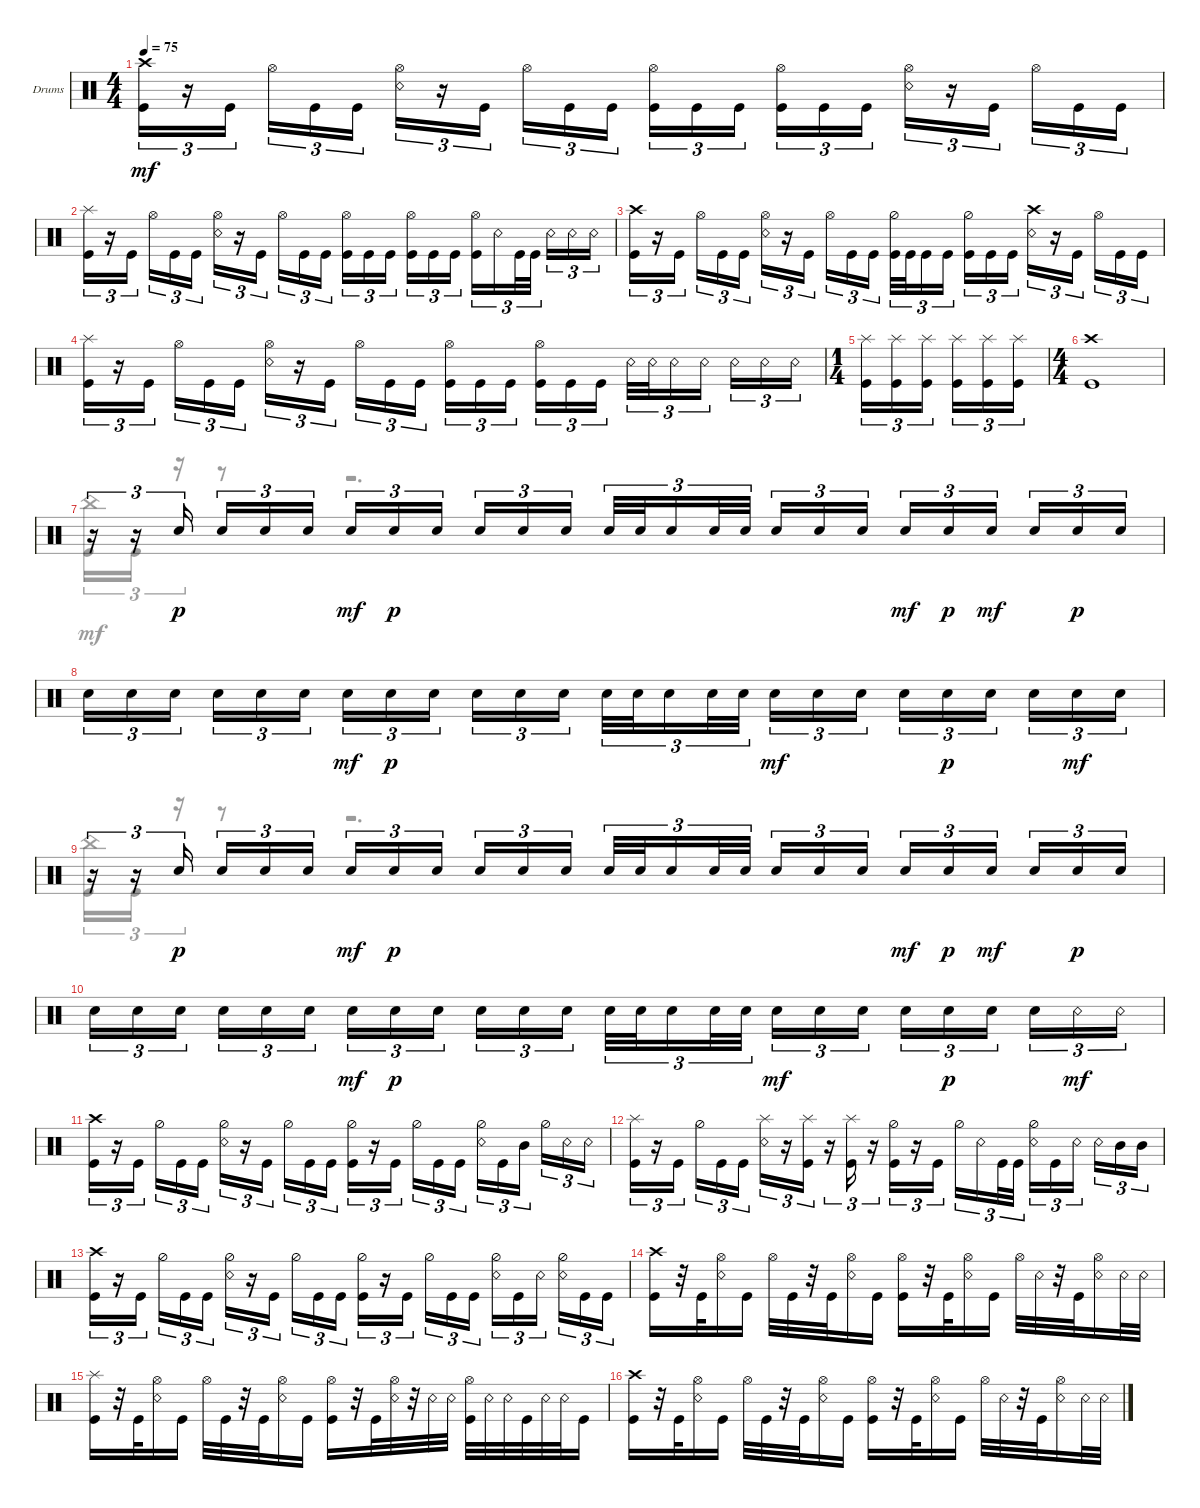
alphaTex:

\defaultSystemsLayout 4
\bracketExtendMode groupsimilarinstruments
\firstSystemTrackNameOrientation horizontal
\otherSystemsTrackNameOrientation horizontal
\track ("Drumkit" "Drums") {instrument percussion}
\staff {score}
\articulation defaults
\voice
\ts (4 4)
\tempo 75
\clef neutral
\ks c
("Kick (hit)" "Crash high (hit)").16{tu (3 2) dy mf} r.16{tu (3 2)} "Kick (hit)".16{tu (3 2)} "Hi-Hat (open)".16{tu (3 2)} "Kick (hit)".16{tu (3 2)} "Kick (hit)".16{tu (3 2)} ("Snare (rim shot)" "Hi-Hat (open)").16{tu (3 2)} r.16{tu (3 2)} "Kick (hit)".16{tu (3 2)} "Hi-Hat (open)".16{tu (3 2)} "Kick (hit)".16{tu (3 2)} "Kick (hit)".16{tu (3 2)} ("Kick (hit)" "Hi-Hat (open)").16{tu (3 2)} "Kick (hit)".16{tu (3 2)} "Kick (hit)".16{tu (3 2)} ("Hi-Hat (open)" "Kick (hit)").16{tu (3 2)} "Kick (hit)".16{tu (3 2)} "Kick (hit)".16{tu (3 2)} ("Snare (rim shot)" "Hi-Hat (open)").16{tu (3 2)} r.16{tu (3 2)} "Kick (hit)".16{tu (3 2)} "Hi-Hat (open)".16{tu (3 2)} "Kick (hit)".16{tu (3 2)} "Kick (hit)".16{tu (3 2)} |
("Kick (hit)" "Splash (hit)").16{tu (3 2)} r.16{tu (3 2)} "Kick (hit)".16{tu (3 2)} "Hi-Hat (open)".16{tu (3 2)} "Kick (hit)".16{tu (3 2)} "Kick (hit)".16{tu (3 2)} ("Snare (rim shot)" "Hi-Hat (open)").16{tu (3 2)} r.16{tu (3 2)} "Kick (hit)".16{tu (3 2)} "Hi-Hat (open)".16{tu (3 2)} "Kick (hit)".16{tu (3 2)} "Kick (hit)".16{tu (3 2)} ("Kick (hit)" "Hi-Hat (open)").16{tu (3 2)} "Kick (hit)".16{tu (3 2)} "Kick (hit)".16{tu (3 2)} ("Hi-Hat (open)" "Kick (hit)").16{tu (3 2)} "Kick (hit)".16{tu (3 2)} "Kick (hit)".16{tu (3 2)} ("Kick (hit)" "Hi-Hat (open)").16{tu (3 2)} "Snare (rim shot)".16{tu (3 2)} "Kick (hit)".32{tu (3 2)} "Kick (hit)".32{tu (3 2)} "Snare (rim shot)".16{tu (3 2)} "Snare (rim shot)".16{tu (3 2)} "Snare (rim shot)".16{tu (3 2)} |
("Kick (hit)" "Crash high (hit)").16{tu (3 2)} r.16{tu (3 2)} "Kick (hit)".16{tu (3 2)} "Hi-Hat (open)".16{tu (3 2)} "Kick (hit)".16{tu (3 2)} "Kick (hit)".16{tu (3 2)} ("Snare (rim shot)" "Hi-Hat (open)").16{tu (3 2)} r.16{tu (3 2)} "Kick (hit)".16{tu (3 2)} "Hi-Hat (open)".16{tu (3 2)} "Kick (hit)".16{tu (3 2)} "Kick (hit)".16{tu (3 2)} ("Kick (hit)" "Hi-Hat (half)").32{tu (3 2)} "Kick (hit)".32{tu (3 2)} "Kick (hit)".16{tu (3 2)} "Kick (hit)".16{tu (3 2)} ("Kick (hit)" "Hi-Hat (half)").16{tu (3 2)} "Kick (hit)".16{tu (3 2)} "Kick (hit)".16{tu (3 2)} ("Snare (rim shot)" "Crash high (hit)").16{tu (3 2)} r.16{tu (3 2)} "Kick (hit)".16{tu (3 2)} "Hi-Hat (open)".16{tu (3 2)} "Kick (hit)".16{tu (3 2)} "Kick (hit)".16{tu (3 2)} |
("Kick (hit)" "Splash (hit)").16{tu (3 2)} r.16{tu (3 2)} "Kick (hit)".16{tu (3 2)} "Hi-Hat (open)".16{tu (3 2)} "Kick (hit)".16{tu (3 2)} "Kick (hit)".16{tu (3 2)} ("Snare (rim shot)" "Hi-Hat (open)").16{tu (3 2)} r.16{tu (3 2)} "Kick (hit)".16{tu (3 2)} "Hi-Hat (open)".16{tu (3 2)} "Kick (hit)".16{tu (3 2)} "Kick (hit)".16{tu (3 2)} ("Kick (hit)" "Hi-Hat (open)").16{tu (3 2)} "Kick (hit)".16{tu (3 2)} "Kick (hit)".16{tu (3 2)} ("Hi-Hat (open)" "Kick (hit)").16{tu (3 2)} "Kick (hit)".16{tu (3 2)} "Kick (hit)".16{tu (3 2)} "Snare (rim shot)".32{tu (3 2)} "Snare (rim shot)".32{tu (3 2)} "Snare (rim shot)".16{tu (3 2)} "Snare (rim shot)".16{tu (3 2)} "Snare (rim shot)".16{tu (3 2)} "Snare (rim shot)".16{tu (3 2)} "Snare (rim shot)".16{tu (3 2)} |
\ts (1 4)
("Kick (hit)" "Splash (hit)").16{tu (3 2)} ("Kick (hit)" "Splash (hit)").16{tu (3 2)} ("Kick (hit)" "Splash (hit)").16{tu (3 2)} ("Kick (hit)" "Splash (hit)").16{tu (3 2)} ("Kick (hit)" "Splash (hit)").16{tu (3 2)} ("Kick (hit)" "Splash (hit)").16{tu (3 2)} |
\ts (4 4)
("Kick (hit)" "Crash high (hit)").1 |
r.16{tu (3 2)} r.16{tu (3 2)} "Snare (hit) 2".16{tu (3 2) dy p} "Snare (hit) 2".16{tu (3 2)} "Snare (hit) 2".16{tu (3 2)} "Snare (hit) 2".16{tu (3 2)} "Snare (hit) 2".16{tu (3 2) dy mf} "Snare (hit) 2".16{tu (3 2) dy p} "Snare (hit) 2".16{tu (3 2)} "Snare (hit) 2".16{tu (3 2)} "Snare (hit) 2".16{tu (3 2)} "Snare (hit) 2".16{tu (3 2)} "Snare (hit) 2".32{tu (3 2)} "Snare (hit) 2".32{tu (3 2)} "Snare (hit) 2".16{tu (3 2)} "Snare (hit) 2".32{tu (3 2)} "Snare (hit) 2".32{tu (3 2)} "Snare (hit) 2".16{tu (3 2)} "Snare (hit) 2".16{tu (3 2)} "Snare (hit) 2".16{tu (3 2)} "Snare (hit) 2".16{tu (3 2) dy mf} "Snare (hit) 2".16{tu (3 2) dy p} "Snare (hit) 2".16{tu (3 2) dy mf} "Snare (hit) 2".16{tu (3 2)} "Snare (hit) 2".16{tu (3 2) dy p} "Snare (hit) 2".16{tu (3 2)} |
"Snare (hit) 2".16{tu (3 2)} "Snare (hit) 2".16{tu (3 2)} "Snare (hit) 2".16{tu (3 2)} "Snare (hit) 2".16{tu (3 2)} "Snare (hit) 2".16{tu (3 2)} "Snare (hit) 2".16{tu (3 2)} "Snare (hit) 2".16{tu (3 2) dy mf} "Snare (hit) 2".16{tu (3 2) dy p} "Snare (hit) 2".16{tu (3 2)} "Snare (hit) 2".16{tu (3 2)} "Snare (hit) 2".16{tu (3 2)} "Snare (hit) 2".16{tu (3 2)} "Snare (hit) 2".32{tu (3 2)} "Snare (hit) 2".32{tu (3 2)} "Snare (hit) 2".16{tu (3 2)} "Snare (hit) 2".32{tu (3 2)} "Snare (hit) 2".32{tu (3 2)} "Snare (hit) 2".16{tu (3 2) dy mf} "Snare (hit) 2".16{tu (3 2)} "Snare (hit) 2".16{tu (3 2)} "Snare (hit) 2".16{tu (3 2)} "Snare (hit) 2".16{tu (3 2) dy p} "Snare (hit) 2".16{tu (3 2)} "Snare (hit) 2".16{tu (3 2)} "Snare (hit) 2".16{tu (3 2) dy mf} "Snare (hit) 2".16{tu (3 2)} |
r.16{tu (3 2)} r.16{tu (3 2)} "Snare (hit) 2".16{tu (3 2) dy p} "Snare (hit) 2".16{tu (3 2)} "Snare (hit) 2".16{tu (3 2)} "Snare (hit) 2".16{tu (3 2)} "Snare (hit) 2".16{tu (3 2) dy mf} "Snare (hit) 2".16{tu (3 2) dy p} "Snare (hit) 2".16{tu (3 2)} "Snare (hit) 2".16{tu (3 2)} "Snare (hit) 2".16{tu (3 2)} "Snare (hit) 2".16{tu (3 2)} "Snare (hit) 2".32{tu (3 2)} "Snare (hit) 2".32{tu (3 2)} "Snare (hit) 2".16{tu (3 2)} "Snare (hit) 2".32{tu (3 2)} "Snare (hit) 2".32{tu (3 2)} "Snare (hit) 2".16{tu (3 2)} "Snare (hit) 2".16{tu (3 2)} "Snare (hit) 2".16{tu (3 2)} "Snare (hit) 2".16{tu (3 2) dy mf} "Snare (hit) 2".16{tu (3 2) dy p} "Snare (hit) 2".16{tu (3 2) dy mf} "Snare (hit) 2".16{tu (3 2)} "Snare (hit) 2".16{tu (3 2) dy p} "Snare (hit) 2".16{tu (3 2)} |
"Snare (hit) 2".16{tu (3 2)} "Snare (hit) 2".16{tu (3 2)} "Snare (hit) 2".16{tu (3 2)} "Snare (hit) 2".16{tu (3 2)} "Snare (hit) 2".16{tu (3 2)} "Snare (hit) 2".16{tu (3 2)} "Snare (hit) 2".16{tu (3 2) dy mf} "Snare (hit) 2".16{tu (3 2) dy p} "Snare (hit) 2".16{tu (3 2)} "Snare (hit) 2".16{tu (3 2)} "Snare (hit) 2".16{tu (3 2)} "Snare (hit) 2".16{tu (3 2)} "Snare (hit) 2".32{tu (3 2)} "Snare (hit) 2".32{tu (3 2)} "Snare (hit) 2".16{tu (3 2)} "Snare (hit) 2".32{tu (3 2)} "Snare (hit) 2".32{tu (3 2)} "Snare (hit) 2".16{tu (3 2) dy mf} "Snare (hit) 2".16{tu (3 2)} "Snare (hit) 2".16{tu (3 2)} "Snare (hit) 2".16{tu (3 2)} "Snare (hit) 2".16{tu (3 2) dy p} "Snare (hit) 2".16{tu (3 2)} "Snare (hit) 2".16{tu (3 2)} "Snare (rim shot)".16{tu (3 2) dy mf} "Snare (rim shot)".16{tu (3 2)} |
("Kick (hit)" "Crash high (hit)").16{tu (3 2)} r.16{tu (3 2)} "Kick (hit)".16{tu (3 2)} "Hi-Hat (half)".16{tu (3 2)} "Kick (hit)".16{tu (3 2)} "Kick (hit)".16{tu (3 2)} ("Snare (rim shot)" "Hi-Hat (half)").16{tu (3 2)} r.16{tu (3 2)} "Kick (hit)".16{tu (3 2)} "Hi-Hat (half)".16{tu (3 2)} "Kick (hit)".16{tu (3 2)} "Kick (hit)".16{tu (3 2)} ("Kick (hit)" "Hi-Hat (half)").16{tu (3 2)} r.16{tu (3 2)} "Kick (hit)".16{tu (3 2)} "Hi-Hat (half)".16{tu (3 2)} "Kick (hit)".16{tu (3 2)} "Kick (hit)".16{tu (3 2)} ("Snare (rim shot)" "Hi-Hat (half)").16{tu (3 2)} "Kick (hit)".16{tu (3 2)} "Mid Tom (hit)".16{tu (3 2)} "Hi-Hat (half)".16{tu (3 2)} "Snare (rim shot)".16{tu (3 2)} "Snare (rim shot)".16{tu (3 2)} |
("Splash (hit)" "Kick (hit)").16{tu (3 2)} r.16{tu (3 2)} "Kick (hit)".16{tu (3 2)} "Hi-Hat (half)".16{tu (3 2)} "Kick (hit)".16{tu (3 2)} "Kick (hit)".16{tu (3 2)} ("Snare (rim shot)" "Splash (hit)").16{tu (3 2)} r.16{tu (3 2)} ("Kick (hit)" "Splash (hit)").16{tu (3 2)} r.16{tu (3 2)} ("Kick (hit)" "Splash (hit)").16{tu (3 2)} r.16{tu (3 2)} ("Kick (hit)" "Hi-Hat (half)").16{tu (3 2)} r.16{tu (3 2)} "Kick (hit)".16{tu (3 2)} "Hi-Hat (half)".16{tu (3 2)} "Snare (rim shot)".16{tu (3 2)} "Kick (hit)".32{tu (3 2)} "Kick (hit)".32{tu (3 2)} ("Snare (rim shot)" "Hi-Hat (half)").16{tu (3 2)} "Kick (hit)".16{tu (3 2)} "Snare (rim shot)".16{tu (3 2)} "Snare (rim shot)".16{tu (3 2)} "Mid Tom (hit)".16{tu (3 2)} "Mid Tom (hit)".16{tu (3 2)} |
("Kick (hit)" "Crash high (hit)").16{tu (3 2)} r.16{tu (3 2)} "Kick (hit)".16{tu (3 2)} "Hi-Hat (half)".16{tu (3 2)} "Kick (hit)".16{tu (3 2)} "Kick (hit)".16{tu (3 2)} ("Snare (rim shot)" "Hi-Hat (half)").16{tu (3 2)} r.16{tu (3 2)} "Kick (hit)".16{tu (3 2)} "Hi-Hat (half)".16{tu (3 2)} "Kick (hit)".16{tu (3 2)} "Kick (hit)".16{tu (3 2)} ("Kick (hit)" "Hi-Hat (half)").16{tu (3 2)} r.16{tu (3 2)} "Kick (hit)".16{tu (3 2)} "Hi-Hat (half)".16{tu (3 2)} "Kick (hit)".16{tu (3 2)} "Kick (hit)".16{tu (3 2)} ("Snare (rim shot)" "Hi-Hat (half)").16{tu (3 2)} "Kick (hit)".16{tu (3 2)} "Snare (rim shot)".16{tu (3 2)} ("Snare (rim shot)" "Hi-Hat (half)").16{tu (3 2)} "Kick (hit)".16{tu (3 2)} "Kick (hit)".16{tu (3 2)} |
("Kick (hit)" "Crash high (hit)").16 r.32 "Kick (hit)".32 ("Snare (rim shot)" "Hi-Hat (open)").16 "Kick (hit)".16 "Hi-Hat (open)".32 "Kick (hit)".32 r.32 "Kick (hit)".32 ("Snare (rim shot)" "Hi-Hat (open)").16 "Kick (hit)".16 ("Kick (hit)" "Hi-Hat (open)").16 r.32 "Kick (hit)".32 ("Snare (rim shot)" "Hi-Hat (open)").16 "Kick (hit)".16 "Hi-Hat (open)".32 "Snare (rim shot)".32 r.32 "Kick (hit)".32 ("Snare (rim shot)" "Hi-Hat (open)").16 "Snare (rim shot)".32 "Snare (rim shot)".32 |
("Kick (hit)" "Splash (hit)").16 r.32 "Kick (hit)".32 ("Snare (rim shot)" "Hi-Hat (open)").16 "Kick (hit)".16 "Hi-Hat (open)".32 "Kick (hit)".32 r.32 "Kick (hit)".32 ("Snare (rim shot)" "Hi-Hat (open)").16 "Kick (hit)".16 ("Kick (hit)" "Hi-Hat (open)").16 r.32 "Kick (hit)".32 ("Snare (rim shot)" "Hi-Hat (open)").32 r.32 "Snare (rim shot)".32 "Snare (rim shot)".32 ("Kick (hit)" "Hi-Hat (open)").32 "Snare (rim shot)".32 "Snare (rim shot)".32 "Kick (hit)".32 "Snare (rim shot)".32 "Snare (rim shot)".32 "Kick (hit)".16 |
("Kick (hit)" "Crash high (hit)").16 r.32 "Kick (hit)".32 ("Snare (rim shot)" "Hi-Hat (open)").16 "Kick (hit)".16 "Hi-Hat (open)".32 "Kick (hit)".32 r.32 "Kick (hit)".32 ("Snare (rim shot)" "Hi-Hat (open)").16 "Kick (hit)".16 ("Kick (hit)" "Hi-Hat (open)").16 r.32 "Kick (hit)".32 ("Snare (rim shot)" "Hi-Hat (open)").16 "Kick (hit)".16 "Hi-Hat (open)".32 "Snare (rim shot)".32 r.32 "Kick (hit)".32 ("Snare (rim shot)" "Hi-Hat (open)").16 "Snare (rim shot)".32 "Snare (rim shot)".32
\voice
\clef neutral
\ottava regular
\simile none
\ks c
|
|
|
|
|
|
("Kick (hit)" "China (hit)").16{tu (3 2)} "Kick (hit)".16{tu (3 2)} r.16{tu (3 2)} r.8 r.2{d} |
|
("Kick (hit)" "China (hit)").16{tu (3 2)} "Kick (hit)".16{tu (3 2)} r.16{tu (3 2)} r.8 r.2{d} |
|
|
|
|
|
|
